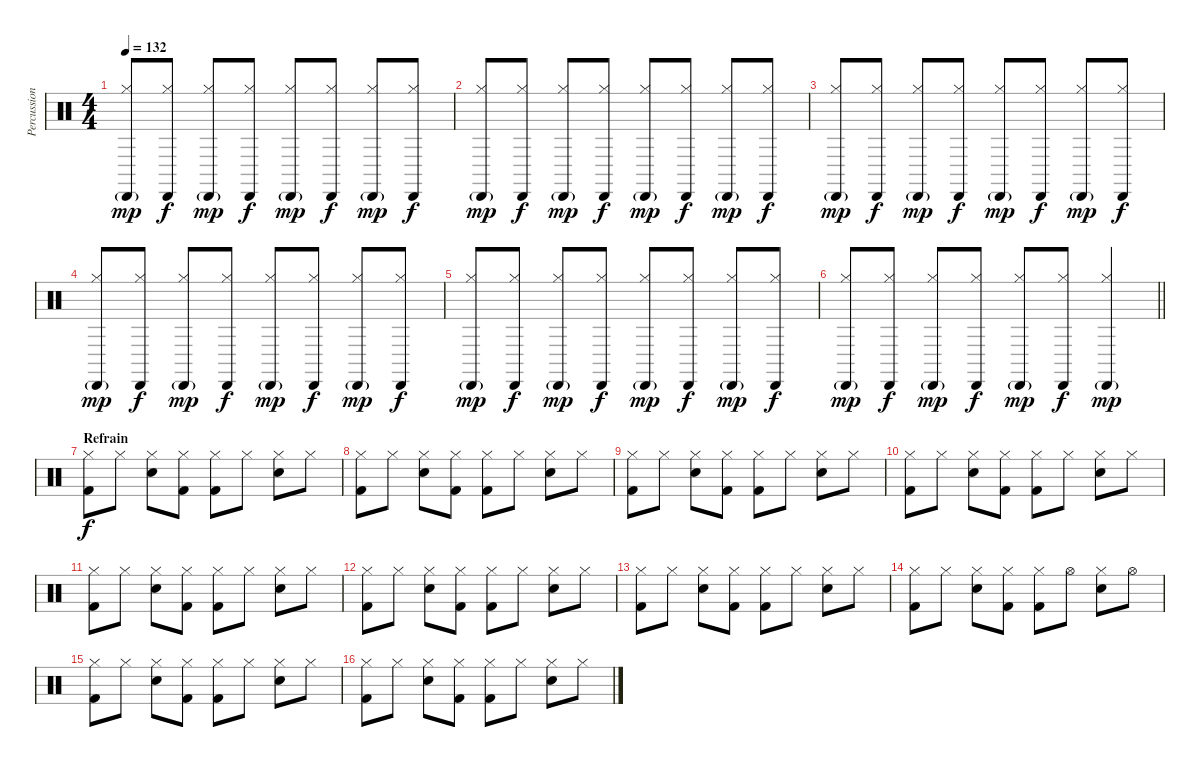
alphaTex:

\track ("Percussions" "Percussion") {instrument percussion}
\staff {score}
\articulation defaults
\ts (4 4)
\tempo 132
\clef neutral
\ks c
("Hi-Hat (closed)" "Cabasa (hit)"{g}).8{dy mp} ("Hi-Hat (closed)" "Cabasa (hit)").8{dy f} ("Hi-Hat (closed)" "Cabasa (hit)"{g}).8{dy mp} ("Hi-Hat (closed)" "Cabasa (hit)").8{dy f} ("Hi-Hat (closed)" "Cabasa (hit)"{g}).8{dy mp} ("Hi-Hat (closed)" "Cabasa (hit)").8{dy f} ("Hi-Hat (closed)" "Cabasa (hit)"{g}).8{dy mp} ("Hi-Hat (closed)" "Cabasa (hit)").8{dy f} |
("Hi-Hat (closed)" "Cabasa (hit)"{g}).8{dy mp} ("Hi-Hat (closed)" "Cabasa (hit)").8{dy f} ("Hi-Hat (closed)" "Cabasa (hit)"{g}).8{dy mp} ("Hi-Hat (closed)" "Cabasa (hit)").8{dy f} ("Hi-Hat (closed)" "Cabasa (hit)"{g}).8{dy mp} ("Hi-Hat (closed)" "Cabasa (hit)").8{dy f} ("Hi-Hat (closed)" "Cabasa (hit)"{g}).8{dy mp} ("Hi-Hat (closed)" "Cabasa (hit)").8{dy f} |
("Hi-Hat (closed)" "Cabasa (hit)"{g}).8{dy mp} ("Hi-Hat (closed)" "Cabasa (hit)").8{dy f} ("Hi-Hat (closed)" "Cabasa (hit)"{g}).8{dy mp} ("Hi-Hat (closed)" "Cabasa (hit)").8{dy f} ("Hi-Hat (closed)" "Cabasa (hit)"{g}).8{dy mp} ("Hi-Hat (closed)" "Cabasa (hit)").8{dy f} ("Hi-Hat (closed)" "Cabasa (hit)"{g}).8{dy mp} ("Hi-Hat (closed)" "Cabasa (hit)").8{dy f} |
("Hi-Hat (closed)" "Cabasa (hit)"{g}).8{dy mp} ("Hi-Hat (closed)" "Cabasa (hit)").8{dy f} ("Hi-Hat (closed)" "Cabasa (hit)"{g}).8{dy mp} ("Hi-Hat (closed)" "Cabasa (hit)").8{dy f} ("Hi-Hat (closed)" "Cabasa (hit)"{g}).8{dy mp} ("Hi-Hat (closed)" "Cabasa (hit)").8{dy f} ("Hi-Hat (closed)" "Cabasa (hit)"{g}).8{dy mp} ("Hi-Hat (closed)" "Cabasa (hit)").8{dy f} |
("Hi-Hat (closed)" "Cabasa (hit)"{g}).8{dy mp} ("Hi-Hat (closed)" "Cabasa (hit)").8{dy f} ("Hi-Hat (closed)" "Cabasa (hit)"{g}).8{dy mp} ("Hi-Hat (closed)" "Cabasa (hit)").8{dy f} ("Hi-Hat (closed)" "Cabasa (hit)"{g}).8{dy mp} ("Hi-Hat (closed)" "Cabasa (hit)").8{dy f} ("Hi-Hat (closed)" "Cabasa (hit)"{g}).8{dy mp} ("Hi-Hat (closed)" "Cabasa (hit)").8{dy f} |
\barLineRight lightlight
("Hi-Hat (closed)" "Cabasa (hit)"{g}).8{dy mp} ("Hi-Hat (closed)" "Cabasa (hit)").8{dy f} ("Hi-Hat (closed)" "Cabasa (hit)"{g}).8{dy mp} ("Hi-Hat (closed)" "Cabasa (hit)").8{dy f} ("Hi-Hat (closed)" "Cabasa (hit)"{g}).8{dy mp} ("Hi-Hat (closed)" "Cabasa (hit)").8{dy f} ("Hi-Hat (closed)" "Cabasa (hit)"{g}).4{dy mp} |
\section ("" "Refrain")
("Hi-Hat (closed)" "Kick (hit) 2").8{dy f} "Hi-Hat (closed)".8 ("Hi-Hat (closed)" "Snare (hit) 2").8 ("Hi-Hat (closed)" "Kick (hit) 2").8 ("Hi-Hat (closed)" "Kick (hit) 2").8 "Hi-Hat (closed)".8 ("Hi-Hat (closed)" "Snare (hit) 2").8 "Hi-Hat (closed)".8 |
("Hi-Hat (closed)" "Kick (hit) 2").8 "Hi-Hat (closed)".8 ("Hi-Hat (closed)" "Snare (hit) 2").8 ("Hi-Hat (closed)" "Kick (hit) 2").8 ("Hi-Hat (closed)" "Kick (hit) 2").8 "Hi-Hat (closed)".8 ("Hi-Hat (closed)" "Snare (hit) 2").8 "Hi-Hat (closed)".8 |
("Hi-Hat (closed)" "Kick (hit) 2").8 "Hi-Hat (closed)".8 ("Hi-Hat (closed)" "Snare (hit) 2").8 ("Hi-Hat (closed)" "Kick (hit) 2").8 ("Hi-Hat (closed)" "Kick (hit) 2").8 "Hi-Hat (closed)".8 ("Hi-Hat (closed)" "Snare (hit) 2").8 "Hi-Hat (closed)".8 |
("Hi-Hat (closed)" "Kick (hit) 2").8 "Hi-Hat (closed)".8 ("Hi-Hat (closed)" "Snare (hit) 2").8 ("Hi-Hat (closed)" "Kick (hit) 2").8 ("Hi-Hat (closed)" "Kick (hit) 2").8 "Hi-Hat (closed)".8 ("Hi-Hat (closed)" "Snare (hit) 2").8 "Hi-Hat (closed)".8 |
("Hi-Hat (closed)" "Kick (hit) 2").8 "Hi-Hat (closed)".8 ("Hi-Hat (closed)" "Snare (hit) 2").8 ("Hi-Hat (closed)" "Kick (hit) 2").8 ("Hi-Hat (closed)" "Kick (hit) 2").8 "Hi-Hat (closed)".8 ("Hi-Hat (closed)" "Snare (hit) 2").8 "Hi-Hat (closed)".8 |
("Hi-Hat (closed)" "Kick (hit) 2").8 "Hi-Hat (closed)".8 ("Hi-Hat (closed)" "Snare (hit) 2").8 ("Hi-Hat (closed)" "Kick (hit) 2").8 ("Hi-Hat (closed)" "Kick (hit) 2").8 "Hi-Hat (closed)".8 ("Hi-Hat (closed)" "Snare (hit) 2").8 "Hi-Hat (closed)".8 |
("Hi-Hat (closed)" "Kick (hit) 2").8 "Hi-Hat (closed)".8 ("Hi-Hat (closed)" "Snare (hit) 2").8 ("Hi-Hat (closed)" "Kick (hit) 2").8 ("Hi-Hat (closed)" "Kick (hit) 2").8 "Hi-Hat (closed)".8 ("Hi-Hat (closed)" "Snare (hit) 2").8 "Hi-Hat (closed)".8 |
("Hi-Hat (closed)" "Kick (hit) 2").8 "Hi-Hat (closed)".8 ("Hi-Hat (closed)" "Snare (hit) 2").8 ("Hi-Hat (closed)" "Kick (hit) 2").8 ("Hi-Hat (closed)" "Kick (hit) 2").8 "Hi-Hat (open)".8 ("Hi-Hat (closed)" "Snare (hit) 2").8 "Hi-Hat (open)".8 |
("Hi-Hat (closed)" "Kick (hit) 2").8 "Hi-Hat (closed)".8 ("Hi-Hat (closed)" "Snare (hit) 2").8 ("Hi-Hat (closed)" "Kick (hit) 2").8 ("Hi-Hat (closed)" "Kick (hit) 2").8 "Hi-Hat (closed)".8 ("Hi-Hat (closed)" "Snare (hit) 2").8 "Hi-Hat (closed)".8 |
("Hi-Hat (closed)" "Kick (hit) 2").8 "Hi-Hat (closed)".8 ("Hi-Hat (closed)" "Snare (hit) 2").8 ("Hi-Hat (closed)" "Kick (hit) 2").8 ("Hi-Hat (closed)" "Kick (hit) 2").8 "Hi-Hat (closed)".8 ("Hi-Hat (closed)" "Snare (hit) 2").8 "Hi-Hat (closed)".8
